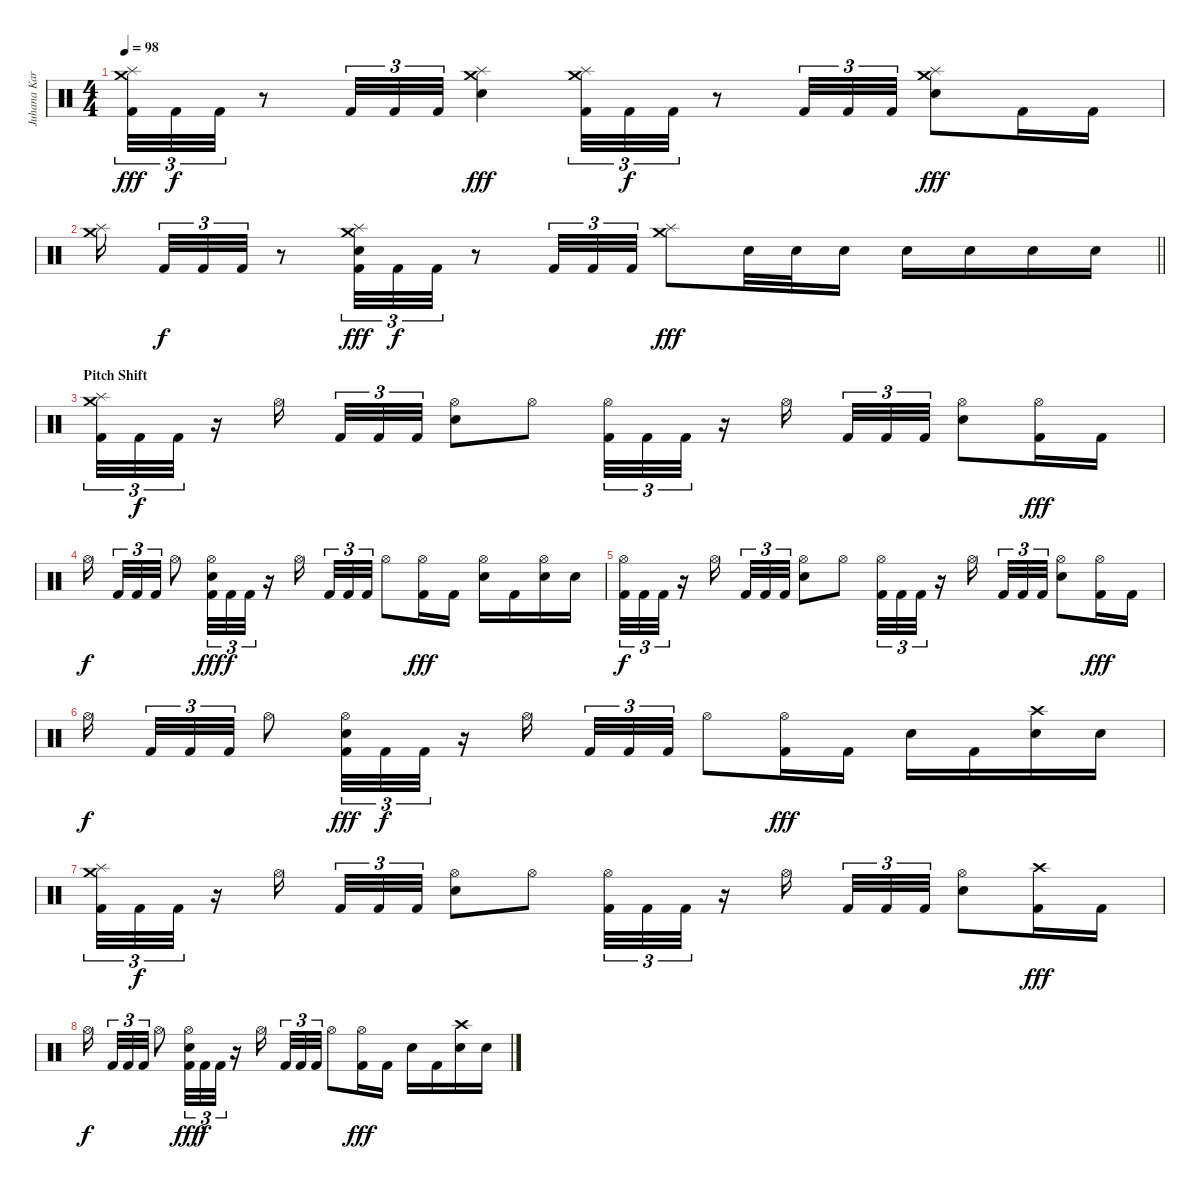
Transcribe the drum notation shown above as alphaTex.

\track ("Juhana Karlsson " "Juhana Kar") {instrument percussion}
\staff {score}
\articulation defaults
\ts (4 4)
\tempo 98
\clef neutral
\ks c
("Crash medium (hit)" "Splash (hit)" "Kick (hit) 2").32{tu (3 2) dy fff} "Kick (hit) 2".32{tu (3 2) dy f} "Kick (hit) 2".32{tu (3 2)} r.8 "Kick (hit) 2".32{tu (3 2)} "Kick (hit) 2".32{tu (3 2)} "Kick (hit) 2".32{tu (3 2)} ("Crash medium (hit)" "Splash (hit)" "Electric Snare (hit)").4{dy fff} ("Crash medium (hit)" "Splash (hit)" "Kick (hit) 2").32{tu (3 2)} "Kick (hit) 2".32{tu (3 2) dy f} "Kick (hit) 2".32{tu (3 2)} r.8 "Kick (hit) 2".32{tu (3 2)} "Kick (hit) 2".32{tu (3 2)} "Kick (hit) 2".32{tu (3 2)} ("Crash medium (hit)" "Splash (hit)" "Electric Snare (hit)").8{dy fff} "Kick (hit) 2".16 "Kick (hit) 2".16 |
\barLineRight lightlight
("Crash medium (hit)" "Splash (hit)").16{beam splitsecondary} "Kick (hit) 2".32{tu (3 2) dy f} "Kick (hit) 2".32{tu (3 2)} "Kick (hit) 2".32{tu (3 2)} r.8 ("Crash medium (hit)" "Splash (hit)" "Electric Snare (hit)" "Kick (hit) 2").32{tu (3 2) dy fff} "Kick (hit) 2".32{tu (3 2) dy f} "Kick (hit) 2".32{tu (3 2)} r.8 "Kick (hit) 2".32{tu (3 2)} "Kick (hit) 2".32{tu (3 2)} "Kick (hit) 2".32{tu (3 2)} ("Crash medium (hit)" "Splash (hit)").8{dy fff} "Electric Snare (hit)".32 "Electric Snare (hit)".32 "Electric Snare (hit)".16 "Electric Snare (hit)".16 "Electric Snare (hit)".16 "Electric Snare (hit)".16 "Electric Snare (hit)".16 |
\section ("" "Pitch Shift")
("Crash medium (hit)" "Splash (hit)" "Kick (hit) 2").32{tu (3 2)} "Kick (hit) 2".32{tu (3 2) dy f} "Kick (hit) 2".32{tu (3 2)} r.16 "Hi-Hat (open)".16{beam splitsecondary} "Kick (hit) 2".32{tu (3 2)} "Kick (hit) 2".32{tu (3 2)} "Kick (hit) 2".32{tu (3 2)} ("Hi-Hat (open)" "Electric Snare (hit)").8 "Hi-Hat (open)".8 ("Hi-Hat (open)" "Kick (hit) 2").32{tu (3 2)} "Kick (hit) 2".32{tu (3 2)} "Kick (hit) 2".32{tu (3 2)} r.16 "Hi-Hat (open)".16{beam splitsecondary} "Kick (hit) 2".32{tu (3 2)} "Kick (hit) 2".32{tu (3 2)} "Kick (hit) 2".32{tu (3 2)} ("Hi-Hat (open)" "Electric Snare (hit)").8 ("Hi-Hat (open)" "Kick (hit) 2").16{dy fff} "Kick (hit) 2".16 |
"Hi-Hat (open)".16{dy f beam splitsecondary} "Kick (hit) 2".32{tu (3 2)} "Kick (hit) 2".32{tu (3 2)} "Kick (hit) 2".32{tu (3 2)} "Hi-Hat (open)".8 ("Hi-Hat (open)" "Electric Snare (hit)" "Kick (hit) 2").32{tu (3 2) dy fff} "Kick (hit) 2".32{tu (3 2) dy f} "Kick (hit) 2".32{tu (3 2)} r.16 "Hi-Hat (open)".16{beam splitsecondary} "Kick (hit) 2".32{tu (3 2)} "Kick (hit) 2".32{tu (3 2)} "Kick (hit) 2".32{tu (3 2)} "Hi-Hat (open)".8 ("Hi-Hat (open)" "Kick (hit) 2").16{dy fff} "Kick (hit) 2".16 ("Hi-Hat (open)" "Electric Snare (hit)").16 "Kick (hit) 2".16 ("Hi-Hat (open)" "Electric Snare (hit)").16 "Electric Snare (hit)".16 |
("Hi-Hat (open)" "Kick (hit) 2").32{tu (3 2) dy f} "Kick (hit) 2".32{tu (3 2)} "Kick (hit) 2".32{tu (3 2)} r.16 "Hi-Hat (open)".16{beam splitsecondary} "Kick (hit) 2".32{tu (3 2)} "Kick (hit) 2".32{tu (3 2)} "Kick (hit) 2".32{tu (3 2)} ("Hi-Hat (open)" "Electric Snare (hit)").8 "Hi-Hat (open)".8 ("Hi-Hat (open)" "Kick (hit) 2").32{tu (3 2)} "Kick (hit) 2".32{tu (3 2)} "Kick (hit) 2".32{tu (3 2)} r.16 "Hi-Hat (open)".16{beam splitsecondary} "Kick (hit) 2".32{tu (3 2)} "Kick (hit) 2".32{tu (3 2)} "Kick (hit) 2".32{tu (3 2)} ("Hi-Hat (open)" "Electric Snare (hit)").8 ("Hi-Hat (open)" "Kick (hit) 2").16{dy fff} "Kick (hit) 2".16 |
"Hi-Hat (open)".16{dy f beam splitsecondary} "Kick (hit) 2".32{tu (3 2)} "Kick (hit) 2".32{tu (3 2)} "Kick (hit) 2".32{tu (3 2)} "Hi-Hat (open)".8 ("Hi-Hat (open)" "Electric Snare (hit)" "Kick (hit) 2").32{tu (3 2) dy fff} "Kick (hit) 2".32{tu (3 2) dy f} "Kick (hit) 2".32{tu (3 2)} r.16 "Hi-Hat (open)".16{beam splitsecondary} "Kick (hit) 2".32{tu (3 2)} "Kick (hit) 2".32{tu (3 2)} "Kick (hit) 2".32{tu (3 2)} "Hi-Hat (open)".8 ("Hi-Hat (open)" "Kick (hit) 2").16{dy fff} "Kick (hit) 2".16 "Electric Snare (hit)".16 "Kick (hit) 2".16 ("Crash high (hit)" "Electric Snare (hit)").16 "Electric Snare (hit)".16 |
("Crash medium (hit)" "Splash (hit)" "Kick (hit) 2").32{tu (3 2)} "Kick (hit) 2".32{tu (3 2) dy f} "Kick (hit) 2".32{tu (3 2)} r.16 "Hi-Hat (open)".16{beam splitsecondary} "Kick (hit) 2".32{tu (3 2)} "Kick (hit) 2".32{tu (3 2)} "Kick (hit) 2".32{tu (3 2)} ("Hi-Hat (open)" "Electric Snare (hit)").8 "Hi-Hat (open)".8 ("Hi-Hat (open)" "Kick (hit) 2").32{tu (3 2)} "Kick (hit) 2".32{tu (3 2)} "Kick (hit) 2".32{tu (3 2)} r.16 "Hi-Hat (open)".16{beam splitsecondary} "Kick (hit) 2".32{tu (3 2)} "Kick (hit) 2".32{tu (3 2)} "Kick (hit) 2".32{tu (3 2)} ("Hi-Hat (open)" "Electric Snare (hit)").8 ("Crash high (hit)" "Kick (hit) 2").16{dy fff} "Kick (hit) 2".16 |
"Hi-Hat (open)".16{dy f beam splitsecondary} "Kick (hit) 2".32{tu (3 2)} "Kick (hit) 2".32{tu (3 2)} "Kick (hit) 2".32{tu (3 2)} "Hi-Hat (open)".8 ("Hi-Hat (open)" "Electric Snare (hit)" "Kick (hit) 2").32{tu (3 2) dy fff} "Kick (hit) 2".32{tu (3 2) dy f} "Kick (hit) 2".32{tu (3 2)} r.16 "Hi-Hat (open)".16{beam splitsecondary} "Kick (hit) 2".32{tu (3 2)} "Kick (hit) 2".32{tu (3 2)} "Kick (hit) 2".32{tu (3 2)} "Hi-Hat (open)".8 ("Hi-Hat (open)" "Kick (hit) 2").16{dy fff} "Kick (hit) 2".16 "Electric Snare (hit)".16 "Kick (hit) 2".16 ("Crash high (hit)" "Electric Snare (hit)").16 "Electric Snare (hit)".16
